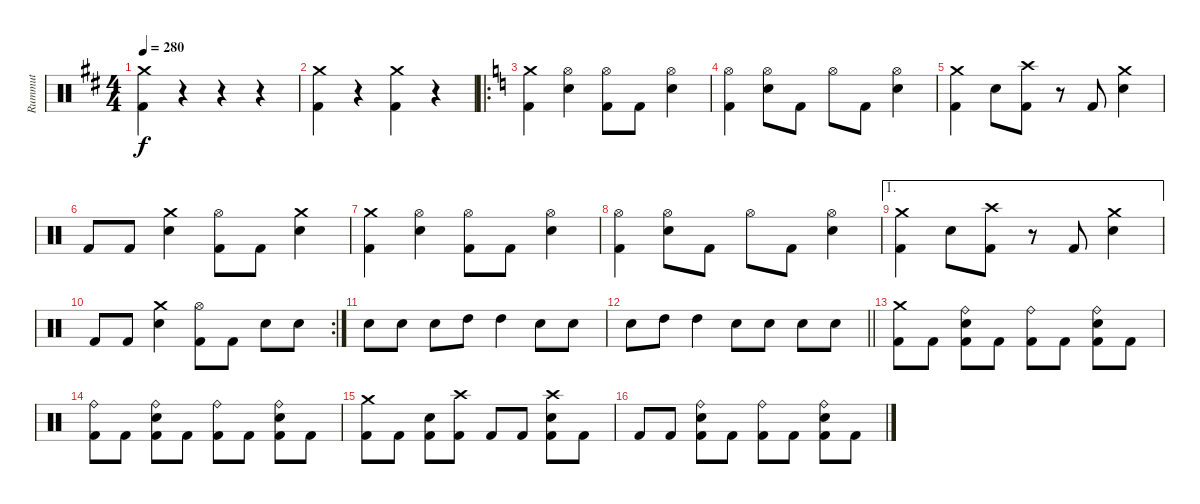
\track ("Rummut" "Rummut") {instrument percussion}
\staff {score}
\articulation defaults
\ts (4 4)
\tempo 280
\clef neutral
\ks d
("Crash medium (hit)" "Kick (hit) 2").4{dy f} r.4 r.4 r.4 |
("Crash medium (hit)" "Kick (hit) 2").4 r.4 ("Crash medium (hit)" "Kick (hit) 2").4 r.4 |
\ro
\ks c
("Crash medium (hit)" "Kick (hit) 2").4 ("Hi-Hat (open)" "Snare (hit) 2").4 ("Hi-Hat (open)" "Kick (hit) 2").8 "Kick (hit) 2".8 ("Hi-Hat (open)" "Snare (hit) 2").4 |
("Hi-Hat (open)" "Kick (hit) 2").4 ("Hi-Hat (open)" "Snare (hit) 2").8 "Kick (hit) 2".8 "Hi-Hat (open)".8 "Kick (hit) 2".8 ("Hi-Hat (open)" "Snare (hit) 2").4 |
("Crash medium (hit)" "Kick (hit) 2").4 "Snare (hit) 2".8 ("Crash high (hit)" "Kick (hit) 2").8 r.8 "Kick (hit) 2".8 ("Crash medium (hit)" "Snare (hit) 2").4 |
"Kick (hit) 2".8 "Kick (hit) 2".8 ("Crash medium (hit)" "Snare (hit) 2").4 ("Hi-Hat (open)" "Kick (hit) 2").8 "Kick (hit) 2".8 ("Crash medium (hit)" "Snare (hit) 2").4 |
("Crash medium (hit)" "Kick (hit) 2").4 ("Hi-Hat (open)" "Snare (hit) 2").4 ("Hi-Hat (open)" "Kick (hit) 2").8 "Kick (hit) 2".8 ("Hi-Hat (open)" "Snare (hit) 2").4 |
("Hi-Hat (open)" "Kick (hit) 2").4 ("Hi-Hat (open)" "Snare (hit) 2").8 "Kick (hit) 2".8 "Hi-Hat (open)".8 "Kick (hit) 2".8 ("Hi-Hat (open)" "Snare (hit) 2").4 |
\ae 1
("Crash medium (hit)" "Kick (hit) 2").4 "Snare (hit) 2".8 ("Crash high (hit)" "Kick (hit) 2").8 r.8 "Kick (hit) 2".8 ("Crash medium (hit)" "Snare (hit) 2").4 |
\rc 2 "Kick (hit) 2".8 "Kick (hit) 2".8
("Crash medium (hit)" "Snare (hit) 2").4 ("Hi-Hat (open)" "Kick (hit) 2").8 "Kick (hit) 2".8 "Snare (hit) 2".8 "Snare (hit) 2".8 |
"Snare (hit) 2".8 "Snare (hit) 2".8 "Snare (hit) 2".8 "High Tom (hit)".8 "High Tom (hit)".4 "Snare (hit) 2".8 "Snare (hit) 2".8 |
\barLineRight lightlight "Snare (hit) 2".8 "High Tom (hit)".8 "High Tom (hit)".4 "Snare (hit) 2".8 "Snare (hit) 2".8 "Snare (hit) 2".8 "Snare (hit) 2".8
|
("Crash medium (hit)" "Kick (hit) 2").8 "Kick (hit) 2".8 ("Ride (bell)" "Snare (hit) 2" "Kick (hit) 2").8 "Kick (hit) 2".8 ("Ride (bell)" "Kick (hit) 2").8 "Kick (hit) 2".8 ("Ride (bell)" "Snare (hit) 2" "Kick (hit) 2").8 "Kick (hit) 2".8 |
("Ride (bell)" "Kick (hit) 2").8 "Kick (hit) 2".8 ("Ride (bell)" "Snare (hit) 2" "Kick (hit) 2").8 "Kick (hit) 2".8 ("Ride (bell)" "Kick (hit) 2").8 "Kick (hit) 2".8 ("Ride (bell)" "Snare (hit) 2" "Kick (hit) 2").8 "Kick (hit) 2".8 |
("Crash medium (hit)" "Kick (hit) 2").8 "Kick (hit) 2".8 ("Snare (hit) 2" "Kick (hit) 2").8 ("Crash high (hit)" "Kick (hit) 2").8 "Kick (hit) 2".8 "Kick (hit) 2".8 ("Crash high (hit)" "Snare (hit) 2" "Kick (hit) 2").8 "Kick (hit) 2".8 |
"Kick (hit) 2".8 "Kick (hit) 2".8 ("Ride (bell)" "Snare (hit) 2" "Kick (hit) 2").8 "Kick (hit) 2".8 ("Ride (bell)" "Kick (hit) 2").8 "Kick (hit) 2".8 ("Ride (bell)" "Snare (hit) 2" "Kick (hit) 2").8 "Kick (hit) 2".8
